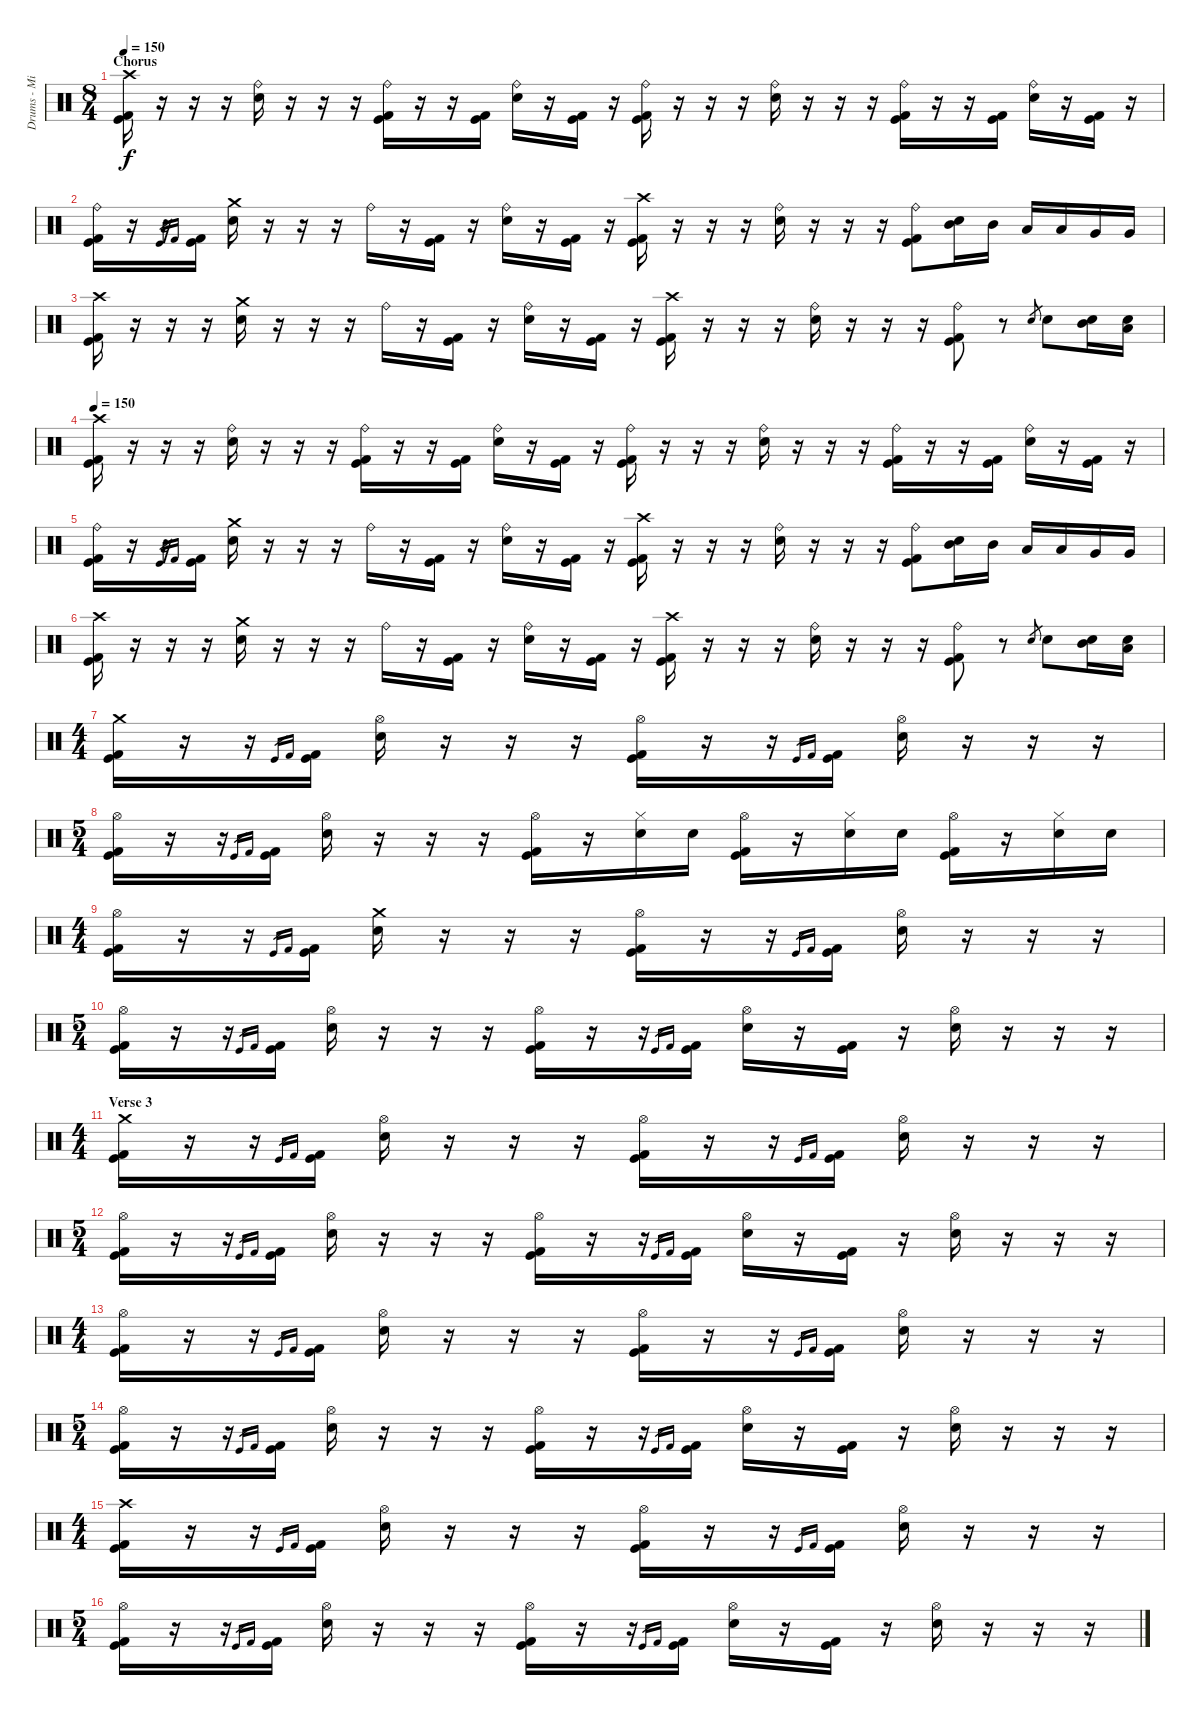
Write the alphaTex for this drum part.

\track ("Drums - Mikkey Dee" "Drums - Mi") {instrument percussion}
\staff {score}
\articulation defaults
\ts (8 4)
\section ("" "Chorus")
\tempo 150
\clef neutral
\ks c
("Crash high (hit)" "Kick (hit)" "Kick (hit) 2").16{dy f} r.16 r.16 r.16 ("Ride (bell)" "Electric Snare (hit)").16 r.16 r.16 r.16 ("Ride (bell)" "Kick (hit)" "Kick (hit) 2").16 r.16 r.16 ("Kick (hit)" "Kick (hit) 2").16 ("Ride (bell)" "Electric Snare (hit)").16 r.16 ("Kick (hit)" "Kick (hit) 2").16 r.16 ("Ride (bell)" "Kick (hit)" "Kick (hit) 2").16 r.16 r.16 r.16 ("Ride (bell)" "Electric Snare (hit)").16 r.16 r.16 r.16 ("Ride (bell)" "Kick (hit)" "Kick (hit) 2").16 r.16 r.16 ("Kick (hit)" "Kick (hit) 2").16 ("Ride (bell)" "Electric Snare (hit)").16 r.16 ("Kick (hit)" "Kick (hit) 2").16 r.16 |
("Ride (bell)" "Kick (hit)" "Kick (hit) 2").16 r.16 r.16 "Kick (hit)".16{gr} "Kick (hit) 2".16{gr} ("Kick (hit)" "Kick (hit) 2").16 ("Crash medium (hit)" "Electric Snare (hit)").16 r.16 r.16 r.16 "Ride (bell)".16 r.16 ("Kick (hit)" "Kick (hit) 2").16 r.16 ("Ride (bell)" "Electric Snare (hit)").16 r.16 ("Kick (hit)" "Kick (hit) 2").16 r.16 ("Crash high (hit)" "Kick (hit)" "Kick (hit) 2").16 r.16 r.16 r.16 ("Ride (bell)" "Electric Snare (hit)").16 r.16 r.16 r.16 ("Ride (bell)" "Kick (hit)" "Kick (hit) 2").8 ("Mid Tom (hit)" "Electric Snare (hit)").16 "Mid Tom (hit)".16 "Low Tom (hit)".16 "Low Tom (hit)".16 "Very Low Tom (hit)".16 "Very Low Tom (hit)".16 |
("Crash high (hit)" "Kick (hit)" "Kick (hit) 2").16 r.16 r.16 r.16 ("Crash medium (hit)" "Electric Snare (hit)").16 r.16 r.16 r.16 "Ride (bell)".16 r.16 ("Kick (hit)" "Kick (hit) 2").16 r.16 ("Ride (bell)" "Electric Snare (hit)").16 r.16 ("Kick (hit)" "Kick (hit) 2").16 r.16 ("Crash high (hit)" "Kick (hit)" "Kick (hit) 2").16 r.16 r.16 r.16 ("Ride (bell)" "Electric Snare (hit)").16 r.16 r.16 r.16 ("Ride (bell)" "Kick (hit)" "Kick (hit) 2").8 r.8 "Electric Snare (hit)".8{gr} "Electric Snare (hit)".8 ("Mid Tom (hit)" "Electric Snare (hit)").16 ("Low Tom (hit)" "Electric Snare (hit)").16 |
\tempo 150
("Crash high (hit)" "Kick (hit)" "Kick (hit) 2").16 r.16 r.16 r.16 ("Ride (bell)" "Electric Snare (hit)").16 r.16 r.16 r.16 ("Ride (bell)" "Kick (hit)" "Kick (hit) 2").16 r.16 r.16 ("Kick (hit)" "Kick (hit) 2").16 ("Ride (bell)" "Electric Snare (hit)").16 r.16 ("Kick (hit)" "Kick (hit) 2").16 r.16 ("Ride (bell)" "Kick (hit)" "Kick (hit) 2").16 r.16 r.16 r.16 ("Ride (bell)" "Electric Snare (hit)").16 r.16 r.16 r.16 ("Ride (bell)" "Kick (hit)" "Kick (hit) 2").16 r.16 r.16 ("Kick (hit)" "Kick (hit) 2").16 ("Ride (bell)" "Electric Snare (hit)").16 r.16 ("Kick (hit)" "Kick (hit) 2").16 r.16 |
("Ride (bell)" "Kick (hit)" "Kick (hit) 2").16 r.16 r.16 "Kick (hit)".16{gr} "Kick (hit) 2".16{gr} ("Kick (hit)" "Kick (hit) 2").16 ("Crash medium (hit)" "Electric Snare (hit)").16 r.16 r.16 r.16 "Ride (bell)".16 r.16 ("Kick (hit)" "Kick (hit) 2").16 r.16 ("Ride (bell)" "Electric Snare (hit)").16 r.16 ("Kick (hit)" "Kick (hit) 2").16 r.16 ("Crash high (hit)" "Kick (hit)" "Kick (hit) 2").16 r.16 r.16 r.16 ("Ride (bell)" "Electric Snare (hit)").16 r.16 r.16 r.16 ("Ride (bell)" "Kick (hit)" "Kick (hit) 2").8 ("Mid Tom (hit)" "Electric Snare (hit)").16 "Mid Tom (hit)".16 "Low Tom (hit)".16 "Low Tom (hit)".16 "Very Low Tom (hit)".16 "Very Low Tom (hit)".16 |
("Crash high (hit)" "Kick (hit)" "Kick (hit) 2").16 r.16 r.16 r.16 ("Crash medium (hit)" "Electric Snare (hit)").16 r.16 r.16 r.16 "Ride (bell)".16 r.16 ("Kick (hit)" "Kick (hit) 2").16 r.16 ("Ride (bell)" "Electric Snare (hit)").16 r.16 ("Kick (hit)" "Kick (hit) 2").16 r.16 ("Crash high (hit)" "Kick (hit)" "Kick (hit) 2").16 r.16 r.16 r.16 ("Ride (bell)" "Electric Snare (hit)").16 r.16 r.16 r.16 ("Ride (bell)" "Kick (hit)" "Kick (hit) 2").8 r.8 "Electric Snare (hit)".8{gr} "Electric Snare (hit)".8 ("Mid Tom (hit)" "Electric Snare (hit)").16 ("Low Tom (hit)" "Electric Snare (hit)").16 |
\ts (4 4)
("Crash medium (hit)" "Kick (hit)" "Kick (hit) 2").16 r.16 r.16 "Kick (hit)".16{gr} "Kick (hit) 2".16{gr} ("Kick (hit)" "Kick (hit) 2").16 ("Hi-Hat (open)" "Electric Snare (hit)").16 r.16 r.16 r.16 ("Hi-Hat (open)" "Kick (hit)" "Kick (hit) 2").16 r.16 r.16 "Kick (hit)".16{gr} "Kick (hit) 2".16{gr} ("Kick (hit)" "Kick (hit) 2").16 ("Hi-Hat (open)" "Electric Snare (hit)").16 r.16 r.16 r.16 |
\ts (5 4)
("Hi-Hat (open)" "Kick (hit)" "Kick (hit) 2").16 r.16 r.16 "Kick (hit)".16{gr} "Kick (hit) 2".16{gr} ("Kick (hit)" "Kick (hit) 2").16 ("Hi-Hat (open)" "Electric Snare (hit)").16 r.16 r.16 r.16 ("Hi-Hat (open)" "Kick (hit)" "Kick (hit) 2").16 r.16 ("Hi-Hat (closed)" "Electric Snare (hit)").16 "Electric Snare (hit)".16 ("Hi-Hat (open)" "Kick (hit)" "Kick (hit) 2").16 r.16 ("Hi-Hat (closed)" "Electric Snare (hit)").16 "Electric Snare (hit)".16 ("Hi-Hat (open)" "Kick (hit)" "Kick (hit) 2").16 r.16 ("Hi-Hat (closed)" "Electric Snare (hit)").16 "Electric Snare (hit)".16 |
\ts (4 4)
("Hi-Hat (open)" "Kick (hit)" "Kick (hit) 2").16 r.16 r.16 "Kick (hit)".16{gr} "Kick (hit) 2".16{gr} ("Kick (hit)" "Kick (hit) 2").16 ("Crash medium (hit)" "Electric Snare (hit)").16 r.16 r.16 r.16 ("Hi-Hat (open)" "Kick (hit)" "Kick (hit) 2").16 r.16 r.16 "Kick (hit)".16{gr} "Kick (hit) 2".16{gr} ("Kick (hit)" "Kick (hit) 2").16 ("Hi-Hat (open)" "Electric Snare (hit)").16 r.16 r.16 r.16 |
\ts (5 4)
("Hi-Hat (open)" "Kick (hit)" "Kick (hit) 2").16 r.16 r.16 "Kick (hit)".16{gr} "Kick (hit) 2".16{gr} ("Kick (hit)" "Kick (hit) 2").16 ("Hi-Hat (open)" "Electric Snare (hit)").16 r.16 r.16 r.16 ("Hi-Hat (open)" "Kick (hit)" "Kick (hit) 2").16 r.16 r.16 "Kick (hit)".16{gr} "Kick (hit) 2".16{gr} ("Kick (hit)" "Kick (hit) 2").16 ("Hi-Hat (open)" "Electric Snare (hit)").16 r.16 ("Kick (hit)" "Kick (hit) 2").16 r.16 ("Hi-Hat (open)" "Electric Snare (hit)").16 r.16 r.16 r.16 |
\ts (4 4)
\section ("" "Verse 3")
("Crash medium (hit)" "Kick (hit)" "Kick (hit) 2").16 r.16 r.16 "Kick (hit)".16{gr} "Kick (hit) 2".16{gr} ("Kick (hit)" "Kick (hit) 2").16 ("Hi-Hat (open)" "Electric Snare (hit)").16 r.16 r.16 r.16 ("Hi-Hat (open)" "Kick (hit)" "Kick (hit) 2").16 r.16 r.16 "Kick (hit)".16{gr} "Kick (hit) 2".16{gr} ("Kick (hit)" "Kick (hit) 2").16 ("Hi-Hat (open)" "Electric Snare (hit)").16 r.16 r.16 r.16 |
\ts (5 4)
("Hi-Hat (open)" "Kick (hit)" "Kick (hit) 2").16 r.16 r.16 "Kick (hit)".16{gr} "Kick (hit) 2".16{gr} ("Kick (hit)" "Kick (hit) 2").16 ("Hi-Hat (open)" "Electric Snare (hit)").16 r.16 r.16 r.16 ("Hi-Hat (open)" "Kick (hit)" "Kick (hit) 2").16 r.16 r.16 "Kick (hit)".16{gr} "Kick (hit) 2".16{gr} ("Kick (hit)" "Kick (hit) 2").16 ("Hi-Hat (open)" "Electric Snare (hit)").16 r.16 ("Kick (hit)" "Kick (hit) 2").16 r.16 ("Hi-Hat (open)" "Electric Snare (hit)").16 r.16 r.16 r.16 |
\ts (4 4)
("Hi-Hat (open)" "Kick (hit)" "Kick (hit) 2").16 r.16 r.16 "Kick (hit)".16{gr} "Kick (hit) 2".16{gr} ("Kick (hit)" "Kick (hit) 2").16 ("Hi-Hat (open)" "Electric Snare (hit)").16 r.16 r.16 r.16 ("Hi-Hat (open)" "Kick (hit)" "Kick (hit) 2").16 r.16 r.16 "Kick (hit)".16{gr} "Kick (hit) 2".16{gr} ("Kick (hit)" "Kick (hit) 2").16 ("Hi-Hat (open)" "Electric Snare (hit)").16 r.16 r.16 r.16 |
\ts (5 4)
("Hi-Hat (open)" "Kick (hit)" "Kick (hit) 2").16 r.16 r.16 "Kick (hit)".16{gr} "Kick (hit) 2".16{gr} ("Kick (hit)" "Kick (hit) 2").16 ("Hi-Hat (open)" "Electric Snare (hit)").16 r.16 r.16 r.16 ("Hi-Hat (open)" "Kick (hit)" "Kick (hit) 2").16 r.16 r.16 "Kick (hit)".16{gr} "Kick (hit) 2".16{gr} ("Kick (hit)" "Kick (hit) 2").16 ("Hi-Hat (open)" "Electric Snare (hit)").16 r.16 ("Kick (hit)" "Kick (hit) 2").16 r.16 ("Hi-Hat (open)" "Electric Snare (hit)").16 r.16 r.16 r.16 |
\ts (4 4)
("Crash high (hit)" "Kick (hit)" "Kick (hit) 2").16 r.16 r.16 "Kick (hit)".16{gr} "Kick (hit) 2".16{gr} ("Kick (hit)" "Kick (hit) 2").16 ("Hi-Hat (open)" "Electric Snare (hit)").16 r.16 r.16 r.16 ("Hi-Hat (open)" "Kick (hit)" "Kick (hit) 2").16 r.16 r.16 "Kick (hit)".16{gr} "Kick (hit) 2".16{gr} ("Kick (hit)" "Kick (hit) 2").16 ("Hi-Hat (open)" "Electric Snare (hit)").16 r.16 r.16 r.16 |
\ts (5 4)
("Hi-Hat (open)" "Kick (hit)" "Kick (hit) 2").16 r.16 r.16 "Kick (hit)".16{gr} "Kick (hit) 2".16{gr} ("Kick (hit)" "Kick (hit) 2").16 ("Hi-Hat (open)" "Electric Snare (hit)").16 r.16 r.16 r.16 ("Hi-Hat (open)" "Kick (hit)" "Kick (hit) 2").16 r.16 r.16 "Kick (hit)".16{gr} "Kick (hit) 2".16{gr} ("Kick (hit)" "Kick (hit) 2").16 ("Hi-Hat (open)" "Electric Snare (hit)").16 r.16 ("Kick (hit)" "Kick (hit) 2").16 r.16 ("Hi-Hat (open)" "Electric Snare (hit)").16 r.16 r.16 r.16
